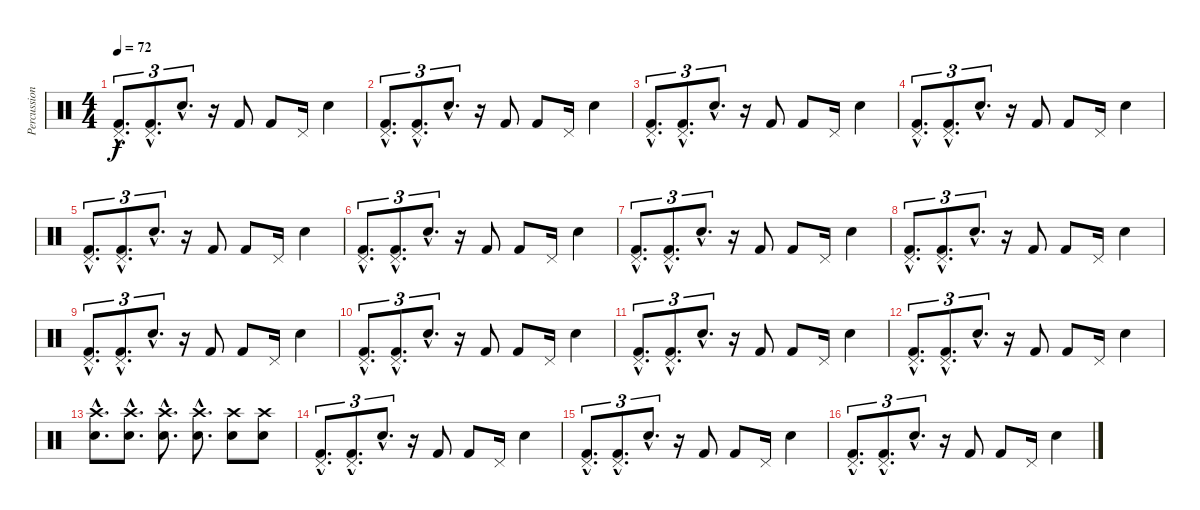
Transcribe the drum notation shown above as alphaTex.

\track ("Percussion" "Percussion") {instrument percussion}
\staff {score}
\articulation defaults
\ts (4 4)
\tempo 72
\clef neutral
\ks c
("Kick (hit) 2"{hac} "Pedal Hi-Hat (hit)"{hac}).8{d tu (3 2) dy f} ("Kick (hit) 2"{hac} "Pedal Hi-Hat (hit)"{hac}).8{d tu (3 2)} "Snare (hit) 2"{hac}.8{d tu (3 2)} r.16 "Kick (hit) 2".8 "Kick (hit) 2".8 "Pedal Hi-Hat (hit)".16 "Snare (hit) 2".4 |
("Kick (hit) 2"{hac} "Pedal Hi-Hat (hit)"{hac}).8{d tu (3 2)} ("Kick (hit) 2"{hac} "Pedal Hi-Hat (hit)"{hac}).8{d tu (3 2)} "Snare (hit) 2"{hac}.8{d tu (3 2)} r.16 "Kick (hit) 2".8 "Kick (hit) 2".8 "Pedal Hi-Hat (hit)".16 "Snare (hit) 2".4 |
("Kick (hit) 2"{hac} "Pedal Hi-Hat (hit)"{hac}).8{d tu (3 2)} ("Kick (hit) 2"{hac} "Pedal Hi-Hat (hit)"{hac}).8{d tu (3 2)} "Snare (hit) 2"{hac}.8{d tu (3 2)} r.16 "Kick (hit) 2".8 "Kick (hit) 2".8 "Pedal Hi-Hat (hit)".16 "Snare (hit) 2".4 |
("Kick (hit) 2"{hac} "Pedal Hi-Hat (hit)"{hac}).8{d tu (3 2)} ("Kick (hit) 2"{hac} "Pedal Hi-Hat (hit)"{hac}).8{d tu (3 2)} "Snare (hit) 2"{hac}.8{d tu (3 2)} r.16 "Kick (hit) 2".8 "Kick (hit) 2".8 "Pedal Hi-Hat (hit)".16 "Snare (hit) 2".4 |
("Kick (hit) 2"{hac} "Pedal Hi-Hat (hit)"{hac}).8{d tu (3 2)} ("Kick (hit) 2"{hac} "Pedal Hi-Hat (hit)"{hac}).8{d tu (3 2)} "Snare (hit) 2"{hac}.8{d tu (3 2)} r.16 "Kick (hit) 2".8 "Kick (hit) 2".8 "Pedal Hi-Hat (hit)".16 "Snare (hit) 2".4 |
("Kick (hit) 2"{hac} "Pedal Hi-Hat (hit)"{hac}).8{d tu (3 2)} ("Kick (hit) 2"{hac} "Pedal Hi-Hat (hit)"{hac}).8{d tu (3 2)} "Snare (hit) 2"{hac}.8{d tu (3 2)} r.16 "Kick (hit) 2".8 "Kick (hit) 2".8 "Pedal Hi-Hat (hit)".16 "Snare (hit) 2".4 |
("Kick (hit) 2"{hac} "Pedal Hi-Hat (hit)"{hac}).8{d tu (3 2)} ("Kick (hit) 2"{hac} "Pedal Hi-Hat (hit)"{hac}).8{d tu (3 2)} "Snare (hit) 2"{hac}.8{d tu (3 2)} r.16 "Kick (hit) 2".8 "Kick (hit) 2".8 "Pedal Hi-Hat (hit)".16 "Snare (hit) 2".4 |
("Kick (hit) 2"{hac} "Pedal Hi-Hat (hit)"{hac}).8{d tu (3 2)} ("Kick (hit) 2"{hac} "Pedal Hi-Hat (hit)"{hac}).8{d tu (3 2)} "Snare (hit) 2"{hac}.8{d tu (3 2)} r.16 "Kick (hit) 2".8 "Kick (hit) 2".8 "Pedal Hi-Hat (hit)".16 "Snare (hit) 2".4 |
("Kick (hit) 2"{hac} "Pedal Hi-Hat (hit)"{hac}).8{d tu (3 2)} ("Kick (hit) 2"{hac} "Pedal Hi-Hat (hit)"{hac}).8{d tu (3 2)} "Snare (hit) 2"{hac}.8{d tu (3 2)} r.16 "Kick (hit) 2".8 "Kick (hit) 2".8 "Pedal Hi-Hat (hit)".16 "Snare (hit) 2".4 |
("Kick (hit) 2"{hac} "Pedal Hi-Hat (hit)"{hac}).8{d tu (3 2)} ("Kick (hit) 2"{hac} "Pedal Hi-Hat (hit)"{hac}).8{d tu (3 2)} "Snare (hit) 2"{hac}.8{d tu (3 2)} r.16 "Kick (hit) 2".8 "Kick (hit) 2".8 "Pedal Hi-Hat (hit)".16 "Snare (hit) 2".4 |
("Kick (hit) 2"{hac} "Pedal Hi-Hat (hit)"{hac}).8{d tu (3 2)} ("Kick (hit) 2"{hac} "Pedal Hi-Hat (hit)"{hac}).8{d tu (3 2)} "Snare (hit) 2"{hac}.8{d tu (3 2)} r.16 "Kick (hit) 2".8 "Kick (hit) 2".8 "Pedal Hi-Hat (hit)".16 "Snare (hit) 2".4 |
("Kick (hit) 2"{hac} "Pedal Hi-Hat (hit)"{hac}).8{d tu (3 2)} ("Kick (hit) 2"{hac} "Pedal Hi-Hat (hit)"{hac}).8{d tu (3 2)} "Snare (hit) 2"{hac}.8{d tu (3 2)} r.16 "Kick (hit) 2".8 "Kick (hit) 2".8 "Pedal Hi-Hat (hit)".16 "Snare (hit) 2".4 |
("Crash high (hit)"{hac} "Snare (hit) 2"{hac}).8{d} ("Crash high (hit)"{hac} "Snare (hit) 2"{hac}).8{d} ("Crash high (hit)"{hac} "Snare (hit) 2"{hac}).8{d} ("Crash high (hit)"{hac} "Snare (hit) 2"{hac}).8{d} ("Crash high (hit)" "Snare (hit) 2").8 ("Crash high (hit)" "Snare (hit) 2").8 |
("Kick (hit) 2"{hac} "Pedal Hi-Hat (hit)"{hac}).8{d tu (3 2)} ("Kick (hit) 2"{hac} "Pedal Hi-Hat (hit)"{hac}).8{d tu (3 2)} "Snare (hit) 2"{hac}.8{d tu (3 2)} r.16 "Kick (hit) 2".8 "Kick (hit) 2".8 "Pedal Hi-Hat (hit)".16 "Snare (hit) 2".4 |
("Kick (hit) 2"{hac} "Pedal Hi-Hat (hit)"{hac}).8{d tu (3 2)} ("Kick (hit) 2"{hac} "Pedal Hi-Hat (hit)"{hac}).8{d tu (3 2)} "Snare (hit) 2"{hac}.8{d tu (3 2)} r.16 "Kick (hit) 2".8 "Kick (hit) 2".8 "Pedal Hi-Hat (hit)".16 "Snare (hit) 2".4 |
("Kick (hit) 2"{hac} "Pedal Hi-Hat (hit)"{hac}).8{d tu (3 2)} ("Kick (hit) 2"{hac} "Pedal Hi-Hat (hit)"{hac}).8{d tu (3 2)} "Snare (hit) 2"{hac}.8{d tu (3 2)} r.16 "Kick (hit) 2".8 "Kick (hit) 2".8 "Pedal Hi-Hat (hit)".16 "Snare (hit) 2".4
